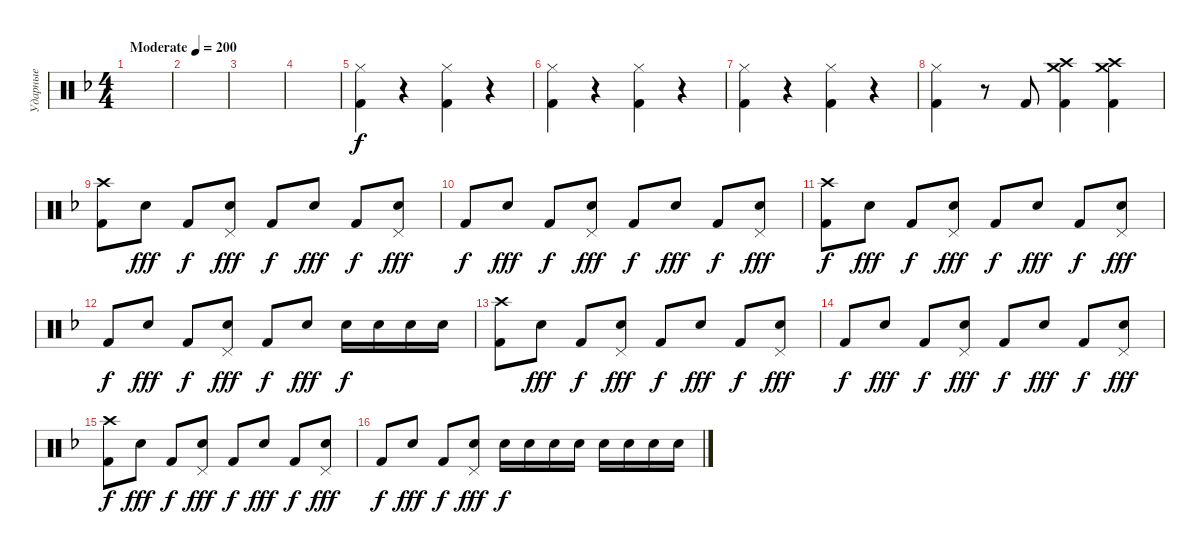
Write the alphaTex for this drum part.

\track ("Ударные" "Ударные") {instrument percussion}
\staff {score}
\articulation defaults
\ts (4 4)
\tempo (200 "Moderate")
\clef neutral
\ks dminor
|
|
|
|
("Kick (hit) 2" "Hi-Hat (closed)").4 r.4 ("Kick (hit) 2" "Hi-Hat (closed)").4 r.4 |
("Kick (hit) 2" "Hi-Hat (closed)").4 r.4 ("Kick (hit) 2" "Hi-Hat (closed)").4 r.4 |
("Kick (hit) 2" "Hi-Hat (closed)").4 r.4 ("Kick (hit) 2" "Hi-Hat (closed)").4 r.4 |
("Kick (hit) 2" "Hi-Hat (closed)").4 r.8 "Kick (hit) 2".8 ("Kick (hit) 2" "Crash high (hit)" "Crash medium (hit)").4{dy f} ("Kick (hit) 2" "Crash high (hit)" "Crash medium (hit)").4 |
("Kick (hit) 2" "Crash high (hit)").8 "Electric Snare (hit)".8{dy fff} "Kick (hit) 2".8{dy f} ("Electric Snare (hit)" "Pedal Hi-Hat (hit)").8{dy fff} "Kick (hit) 2".8{dy f} "Electric Snare (hit)".8{dy fff} "Kick (hit) 2".8{dy f} ("Electric Snare (hit)" "Pedal Hi-Hat (hit)").8{dy fff} |
"Kick (hit) 2".8{dy f} "Electric Snare (hit)".8{dy fff} "Kick (hit) 2".8{dy f} ("Electric Snare (hit)" "Pedal Hi-Hat (hit)").8{dy fff} "Kick (hit) 2".8{dy f} "Electric Snare (hit)".8{dy fff} "Kick (hit) 2".8{dy f} ("Electric Snare (hit)" "Pedal Hi-Hat (hit)").8{dy fff} |
("Kick (hit) 2" "Crash high (hit)").8{dy f} "Electric Snare (hit)".8{dy fff} "Kick (hit) 2".8{dy f} ("Electric Snare (hit)" "Pedal Hi-Hat (hit)").8{dy fff} "Kick (hit) 2".8{dy f} "Electric Snare (hit)".8{dy fff} "Kick (hit) 2".8{dy f} ("Electric Snare (hit)" "Pedal Hi-Hat (hit)").8{dy fff} |
"Kick (hit) 2".8{dy f} "Electric Snare (hit)".8{dy fff} "Kick (hit) 2".8{dy f} ("Electric Snare (hit)" "Pedal Hi-Hat (hit)").8{dy fff} "Kick (hit) 2".8{dy f} "Electric Snare (hit)".8{dy fff} "Electric Snare (hit)".16{dy f} "Electric Snare (hit)".16 "Electric Snare (hit)".16 "Electric Snare (hit)".16 |
("Kick (hit) 2" "Crash high (hit)").8 "Electric Snare (hit)".8{dy fff} "Kick (hit) 2".8{dy f} ("Electric Snare (hit)" "Pedal Hi-Hat (hit)").8{dy fff} "Kick (hit) 2".8{dy f} "Electric Snare (hit)".8{dy fff} "Kick (hit) 2".8{dy f} ("Electric Snare (hit)" "Pedal Hi-Hat (hit)").8{dy fff} |
"Kick (hit) 2".8{dy f} "Electric Snare (hit)".8{dy fff} "Kick (hit) 2".8{dy f} ("Electric Snare (hit)" "Pedal Hi-Hat (hit)").8{dy fff} "Kick (hit) 2".8{dy f} "Electric Snare (hit)".8{dy fff} "Kick (hit) 2".8{dy f} ("Electric Snare (hit)" "Pedal Hi-Hat (hit)").8{dy fff} |
("Kick (hit) 2" "Crash high (hit)").8{dy f} "Electric Snare (hit)".8{dy fff} "Kick (hit) 2".8{dy f} ("Electric Snare (hit)" "Pedal Hi-Hat (hit)").8{dy fff} "Kick (hit) 2".8{dy f} "Electric Snare (hit)".8{dy fff} "Kick (hit) 2".8{dy f} ("Electric Snare (hit)" "Pedal Hi-Hat (hit)").8{dy fff} |
"Kick (hit) 2".8{dy f} "Electric Snare (hit)".8{dy fff} "Kick (hit) 2".8{dy f} ("Electric Snare (hit)" "Pedal Hi-Hat (hit)").8{dy fff} "Electric Snare (hit)".16{dy f} "Electric Snare (hit)".16 "Electric Snare (hit)".16 "Electric Snare (hit)".16 "Electric Snare (hit)".16 "Electric Snare (hit)".16 "Electric Snare (hit)".16 "Electric Snare (hit)".16
